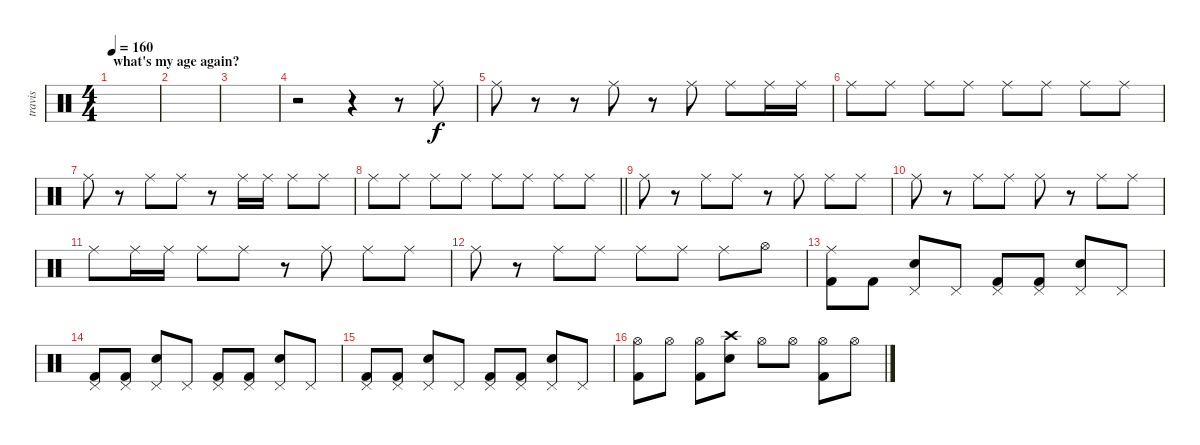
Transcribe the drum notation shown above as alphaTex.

\track ("travis" "travis") {instrument percussion}
\staff {score}
\articulation defaults
\ts (4 4)
\section ("" "what's my age again?")
\tempo 160
\clef neutral
\ks c
|
|
|
r.2 r.4 r.8 "Ride (middle)".8 |
"Ride (middle)".8 r.8 r.8 "Ride (middle)".8 r.8 "Ride (middle)".8 "Ride (middle)".8 "Ride (middle)".16 "Ride (middle)".16 |
"Ride (middle)".8 "Ride (middle)".8 "Ride (middle)".8 "Ride (middle)".8 "Ride (middle)".8 "Ride (middle)".8 "Ride (middle)".8 "Ride (middle)".8 |
"Ride (middle)".8 r.8 "Ride (middle)".8 "Ride (middle)".8 r.8 "Ride (middle)".16 "Ride (middle)".16 "Ride (middle)".8 "Ride (middle)".8 |
\barLineRight lightlight "Ride (middle)".8 "Ride (middle)".8 "Ride (middle)".8 "Ride (middle)".8 "Ride (middle)".8 "Ride (middle)".8 "Ride (middle)".8 "Ride (middle)".8
|
"Ride (middle)".8 r.8 "Ride (middle)".8 "Ride (middle)".8 r.8 "Ride (middle)".8 "Ride (middle)".8 "Ride (middle)".8 |
"Ride (middle)".8 r.8 "Ride (middle)".8 "Ride (middle)".8 "Ride (middle)".8 r.8 "Ride (middle)".8 "Ride (middle)".8 |
"Ride (middle)".8 "Ride (middle)".16 "Ride (middle)".16 "Ride (middle)".8 "Ride (middle)".8 r.8 "Ride (middle)".8 "Ride (middle)".8 "Ride (middle)".8 |
"Ride (middle)".8 r.8 "Ride (middle)".8 "Ride (middle)".8 "Ride (middle)".8 "Ride (middle)".8 "Ride (middle)".8 "Hi-Hat (open)".8 |
("Ride (middle)" "Kick (hit) 2").8 "Kick (hit) 2".8 ("Pedal Hi-Hat (hit)" "Snare (hit) 2").8 "Pedal Hi-Hat (hit)".8 ("Pedal Hi-Hat (hit)" "Kick (hit) 2").8 ("Pedal Hi-Hat (hit)" "Kick (hit) 2").8 ("Pedal Hi-Hat (hit)" "Snare (hit) 2").8 "Pedal Hi-Hat (hit)".8 |
("Pedal Hi-Hat (hit)" "Kick (hit) 2").8 ("Pedal Hi-Hat (hit)" "Kick (hit) 2").8 ("Pedal Hi-Hat (hit)" "Snare (hit) 2").8 "Pedal Hi-Hat (hit)".8 ("Pedal Hi-Hat (hit)" "Kick (hit) 2").8 ("Pedal Hi-Hat (hit)" "Kick (hit) 2").8 ("Pedal Hi-Hat (hit)" "Snare (hit) 2").8 "Pedal Hi-Hat (hit)".8 |
("Pedal Hi-Hat (hit)" "Kick (hit) 2").8 ("Pedal Hi-Hat (hit)" "Kick (hit) 2").8 ("Pedal Hi-Hat (hit)" "Snare (hit) 2").8 "Pedal Hi-Hat (hit)".8 ("Pedal Hi-Hat (hit)" "Kick (hit) 2").8 ("Pedal Hi-Hat (hit)" "Kick (hit) 2").8 ("Pedal Hi-Hat (hit)" "Snare (hit) 2").8 "Pedal Hi-Hat (hit)".8 |
("Hi-Hat (open)" "Kick (hit) 2").8 "Hi-Hat (open)".8 ("Hi-Hat (open)" "Kick (hit) 2").8 ("Crash high (hit)" "Snare (hit) 2").8 "Hi-Hat (open)".8 "Hi-Hat (open)".8 ("Hi-Hat (open)" "Kick (hit) 2").8 "Hi-Hat (open)".8
